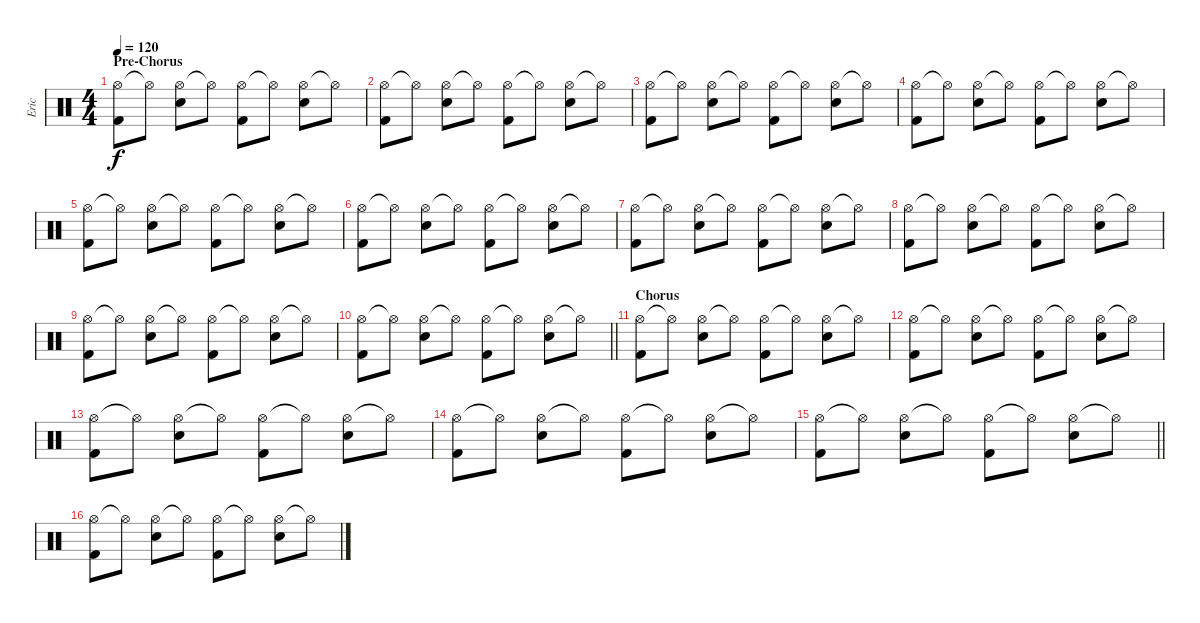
\track ("Eric" "Eric") {instrument percussion}
\staff {score}
\articulation defaults
\ts (4 4)
\section ("" "Pre-Chorus")
\tempo 120
\clef neutral
\ks c
("Hi-Hat (open)" "Kick (hit) 2").8{dy f} "Hi-Hat (open)"{t}.8 ("Hi-Hat (open)" "Snare (hit) 2").8 "Hi-Hat (open)"{t}.8 ("Hi-Hat (open)" "Kick (hit) 2").8 "Hi-Hat (open)"{t}.8 ("Hi-Hat (open)" "Snare (hit) 2").8 "Hi-Hat (open)"{t}.8 |
("Hi-Hat (open)" "Kick (hit) 2").8 "Hi-Hat (open)"{t}.8 ("Hi-Hat (open)" "Snare (hit) 2").8 "Hi-Hat (open)"{t}.8 ("Hi-Hat (open)" "Kick (hit) 2").8 "Hi-Hat (open)"{t}.8 ("Hi-Hat (open)" "Snare (hit) 2").8 "Hi-Hat (open)"{t}.8 |
("Hi-Hat (open)" "Kick (hit) 2").8 "Hi-Hat (open)"{t}.8 ("Hi-Hat (open)" "Snare (hit) 2").8 "Hi-Hat (open)"{t}.8 ("Hi-Hat (open)" "Kick (hit) 2").8 "Hi-Hat (open)"{t}.8 ("Hi-Hat (open)" "Snare (hit) 2").8 "Hi-Hat (open)"{t}.8 |
("Hi-Hat (open)" "Kick (hit) 2").8 "Hi-Hat (open)"{t}.8 ("Hi-Hat (open)" "Snare (hit) 2").8 "Hi-Hat (open)"{t}.8 ("Hi-Hat (open)" "Kick (hit) 2").8 "Hi-Hat (open)"{t}.8 ("Hi-Hat (open)" "Snare (hit) 2").8 "Hi-Hat (open)"{t}.8 |
("Hi-Hat (open)" "Kick (hit) 2").8 "Hi-Hat (open)"{t}.8 ("Hi-Hat (open)" "Snare (hit) 2").8 "Hi-Hat (open)"{t}.8 ("Hi-Hat (open)" "Kick (hit) 2").8 "Hi-Hat (open)"{t}.8 ("Hi-Hat (open)" "Snare (hit) 2").8 "Hi-Hat (open)"{t}.8 |
("Hi-Hat (open)" "Kick (hit) 2").8 "Hi-Hat (open)"{t}.8 ("Hi-Hat (open)" "Snare (hit) 2").8 "Hi-Hat (open)"{t}.8 ("Hi-Hat (open)" "Kick (hit) 2").8 "Hi-Hat (open)"{t}.8 ("Hi-Hat (open)" "Snare (hit) 2").8 "Hi-Hat (open)"{t}.8 |
("Hi-Hat (open)" "Kick (hit) 2").8 "Hi-Hat (open)"{t}.8 ("Hi-Hat (open)" "Snare (hit) 2").8 "Hi-Hat (open)"{t}.8 ("Hi-Hat (open)" "Kick (hit) 2").8 "Hi-Hat (open)"{t}.8 ("Hi-Hat (open)" "Snare (hit) 2").8 "Hi-Hat (open)"{t}.8 |
("Hi-Hat (open)" "Kick (hit) 2").8 "Hi-Hat (open)"{t}.8 ("Hi-Hat (open)" "Snare (hit) 2").8 "Hi-Hat (open)"{t}.8 ("Hi-Hat (open)" "Kick (hit) 2").8 "Hi-Hat (open)"{t}.8 ("Hi-Hat (open)" "Snare (hit) 2").8 "Hi-Hat (open)"{t}.8 |
("Hi-Hat (open)" "Kick (hit) 2").8 "Hi-Hat (open)"{t}.8 ("Hi-Hat (open)" "Snare (hit) 2").8 "Hi-Hat (open)"{t}.8 ("Hi-Hat (open)" "Kick (hit) 2").8 "Hi-Hat (open)"{t}.8 ("Hi-Hat (open)" "Snare (hit) 2").8 "Hi-Hat (open)"{t}.8 |
\barLineRight lightlight
("Hi-Hat (open)" "Kick (hit) 2").8 "Hi-Hat (open)"{t}.8 ("Hi-Hat (open)" "Snare (hit) 2").8 "Hi-Hat (open)"{t}.8 ("Hi-Hat (open)" "Kick (hit) 2").8 "Hi-Hat (open)"{t}.8 ("Hi-Hat (open)" "Snare (hit) 2").8 "Hi-Hat (open)"{t}.8 |
\section ("" "Chorus")
("Hi-Hat (open)" "Kick (hit) 2").8 "Hi-Hat (open)"{t}.8 ("Hi-Hat (open)" "Snare (hit) 2").8 "Hi-Hat (open)"{t}.8 ("Hi-Hat (open)" "Kick (hit) 2").8 "Hi-Hat (open)"{t}.8 ("Hi-Hat (open)" "Snare (hit) 2").8 "Hi-Hat (open)"{t}.8 |
("Hi-Hat (open)" "Kick (hit) 2").8 "Hi-Hat (open)"{t}.8 ("Hi-Hat (open)" "Snare (hit) 2").8 "Hi-Hat (open)"{t}.8 ("Hi-Hat (open)" "Kick (hit) 2").8 "Hi-Hat (open)"{t}.8 ("Hi-Hat (open)" "Snare (hit) 2").8 "Hi-Hat (open)"{t}.8 |
("Hi-Hat (open)" "Kick (hit) 2").8 "Hi-Hat (open)"{t}.8 ("Hi-Hat (open)" "Snare (hit) 2").8 "Hi-Hat (open)"{t}.8 ("Hi-Hat (open)" "Kick (hit) 2").8 "Hi-Hat (open)"{t}.8 ("Hi-Hat (open)" "Snare (hit) 2").8 "Hi-Hat (open)"{t}.8 |
("Hi-Hat (open)" "Kick (hit) 2").8 "Hi-Hat (open)"{t}.8 ("Hi-Hat (open)" "Snare (hit) 2").8 "Hi-Hat (open)"{t}.8 ("Hi-Hat (open)" "Kick (hit) 2").8 "Hi-Hat (open)"{t}.8 ("Hi-Hat (open)" "Snare (hit) 2").8 "Hi-Hat (open)"{t}.8 |
\barLineRight lightlight
("Hi-Hat (open)" "Kick (hit) 2").8 "Hi-Hat (open)"{t}.8 ("Hi-Hat (open)" "Snare (hit) 2").8 "Hi-Hat (open)"{t}.8 ("Hi-Hat (open)" "Kick (hit) 2").8 "Hi-Hat (open)"{t}.8 ("Hi-Hat (open)" "Snare (hit) 2").8 "Hi-Hat (open)"{t}.8 |
\section ("" "")
("Hi-Hat (open)" "Kick (hit) 2").8 "Hi-Hat (open)"{t}.8 ("Hi-Hat (open)" "Snare (hit) 2").8 "Hi-Hat (open)"{t}.8 ("Hi-Hat (open)" "Kick (hit) 2").8 "Hi-Hat (open)"{t}.8 ("Hi-Hat (open)" "Snare (hit) 2").8 "Hi-Hat (open)"{t}.8
